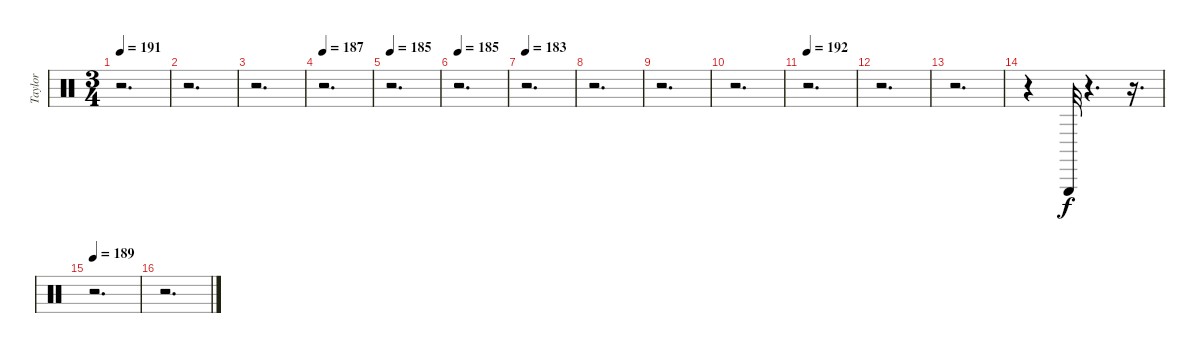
\track ("Taylor" "Taylor") {instrument percussion}
\staff {score}
\articulation defaults
\ts (3 4)
\tempo 191
\clef neutral
\ks c
r.2{d dy f} |
r.2{d} |
r.2{d} |
\tempo 187
r.2{d} |
\tempo 185
r.2{d} |
\tempo 185
r.2{d} |
\tempo 183
r.2{d} |
r.2{d} |
r.2{d} |
r.2{d} |
\tempo 192
r.2{d} |
r.2{d} |
r.2{d} |
r.4 "Triangle (hit)".32 r.4{d} r.16{d} |
\tempo 189
r.2{d} |
r.2{d}
